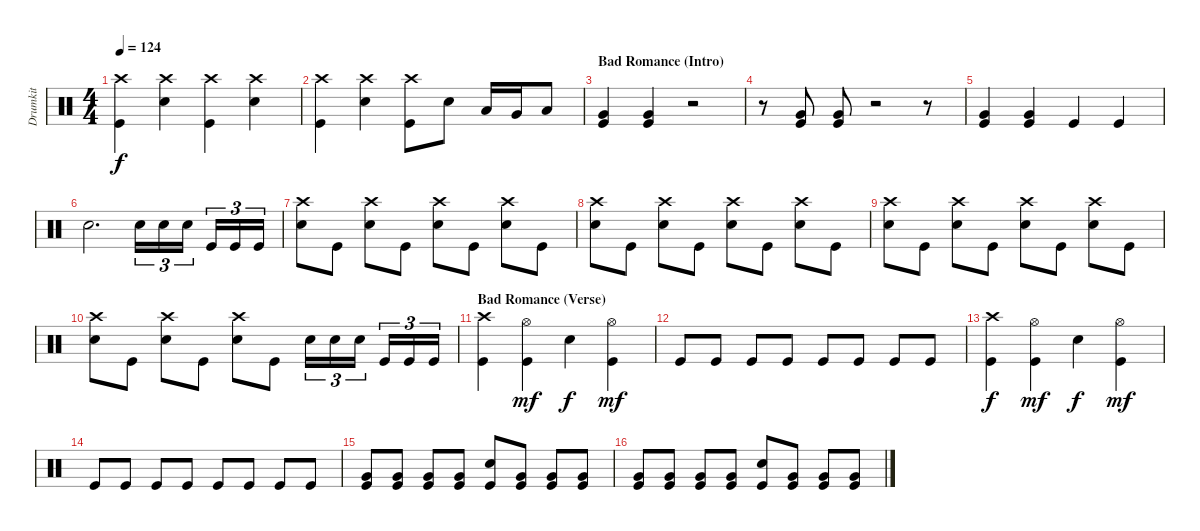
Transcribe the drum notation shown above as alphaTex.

\track ("Drumkit" "Drumkit") {instrument percussion}
\staff {score}
\articulation defaults
\ts (4 4)
\tempo 124
\clef neutral
\ks c
("Kick (hit)" "Crash high (hit)").4{dy f} ("Snare (hit) 2" "Crash high (hit)").4 ("Kick (hit)" "Crash high (hit)").4 ("Snare (hit) 2" "Crash high (hit)").4 |
("Kick (hit)" "Crash high (hit)").4 ("Snare (hit) 2" "Crash high (hit)").4 ("Kick (hit)" "Crash high (hit)").8 "Snare (hit) 2".8 "Low Tom (hit)".16 "Very Low Tom (hit)".16 "Low Floor Tom (hit)".8 |
\section ("" "Bad Romance (Intro)")
("Kick (hit)" "Very Low Tom (hit)").4 ("Kick (hit)" "Very Low Tom (hit)").4 r.2 |
r.8 ("Kick (hit)" "Very Low Tom (hit)").8 ("Kick (hit)" "Very Low Tom (hit)").8 r.2 r.8 |
("Very Low Tom (hit)" "Kick (hit)").4 ("Very Low Tom (hit)" "Kick (hit)").4 "Kick (hit)".4 "Kick (hit)".4 |
"Snare (hit) 2".2{d} "Snare (hit) 2".16{tu (3 2)} "Snare (hit) 2".16{tu (3 2)} "Snare (hit) 2".16{tu (3 2)} "Kick (hit)".16{tu (3 2)} "Kick (hit)".16{tu (3 2)} "Kick (hit)".16{tu (3 2)} |
("Snare (hit) 2" "Crash high (hit)").8 "Kick (hit)".8 ("Snare (hit) 2" "Crash high (hit)").8 "Kick (hit)".8 ("Snare (hit) 2" "Crash high (hit)").8 "Kick (hit)".8 ("Snare (hit) 2" "Crash high (hit)").8 "Kick (hit)".8 |
("Snare (hit) 2" "Crash high (hit)").8 "Kick (hit)".8 ("Snare (hit) 2" "Crash high (hit)").8 "Kick (hit)".8 ("Snare (hit) 2" "Crash high (hit)").8 "Kick (hit)".8 ("Snare (hit) 2" "Crash high (hit)").8 "Kick (hit)".8 |
("Snare (hit) 2" "Crash high (hit)").8 "Kick (hit)".8 ("Snare (hit) 2" "Crash high (hit)").8 "Kick (hit)".8 ("Snare (hit) 2" "Crash high (hit)").8 "Kick (hit)".8 ("Snare (hit) 2" "Crash high (hit)").8 "Kick (hit)".8 |
("Snare (hit) 2" "Crash high (hit)").8 "Kick (hit)".8 ("Snare (hit) 2" "Crash high (hit)").8 "Kick (hit)".8 ("Snare (hit) 2" "Crash high (hit)").8 "Kick (hit)".8 "Snare (hit) 2".16{tu (3 2)} "Snare (hit) 2".16{tu (3 2)} "Snare (hit) 2".16{tu (3 2)} "Kick (hit)".16{tu (3 2)} "Kick (hit)".16{tu (3 2)} "Kick (hit)".16{tu (3 2)} |
\section ("" "Bad Romance (Verse)")
("Crash high (hit)" "Kick (hit)").4 ("Hi-Hat (open)" "Kick (hit)").4{dy mf} "Snare (hit) 2".4{dy f} ("Hi-Hat (open)" "Kick (hit)").4{dy mf} |
"Kick (hit)".8 "Kick (hit)".8 "Kick (hit)".8 "Kick (hit)".8 "Kick (hit)".8 "Kick (hit)".8 "Kick (hit)".8 "Kick (hit)".8 |
("Crash high (hit)" "Kick (hit)").4{dy f} ("Hi-Hat (open)" "Kick (hit)").4{dy mf} "Snare (hit) 2".4{dy f} ("Hi-Hat (open)" "Kick (hit)").4{dy mf} |
"Kick (hit)".8 "Kick (hit)".8 "Kick (hit)".8 "Kick (hit)".8 "Kick (hit)".8 "Kick (hit)".8 "Kick (hit)".8 "Kick (hit)".8 |
("Kick (hit)" "Very Low Tom (hit)").8 ("Kick (hit)" "Very Low Tom (hit)").8 ("Kick (hit)" "Very Low Tom (hit)").8 ("Kick (hit)" "Very Low Tom (hit)").8 ("Kick (hit)" "Snare (hit) 2").8 ("Kick (hit)" "Very Low Tom (hit)").8 ("Kick (hit)" "Very Low Tom (hit)").8 ("Kick (hit)" "Very Low Tom (hit)").8 |
("Kick (hit)" "Very Low Tom (hit)").8 ("Kick (hit)" "Very Low Tom (hit)").8 ("Kick (hit)" "Very Low Tom (hit)").8 ("Kick (hit)" "Very Low Tom (hit)").8 ("Kick (hit)" "Snare (hit) 2").8 ("Kick (hit)" "Very Low Tom (hit)").8 ("Kick (hit)" "Very Low Tom (hit)").8 ("Kick (hit)" "Very Low Tom (hit)").8
